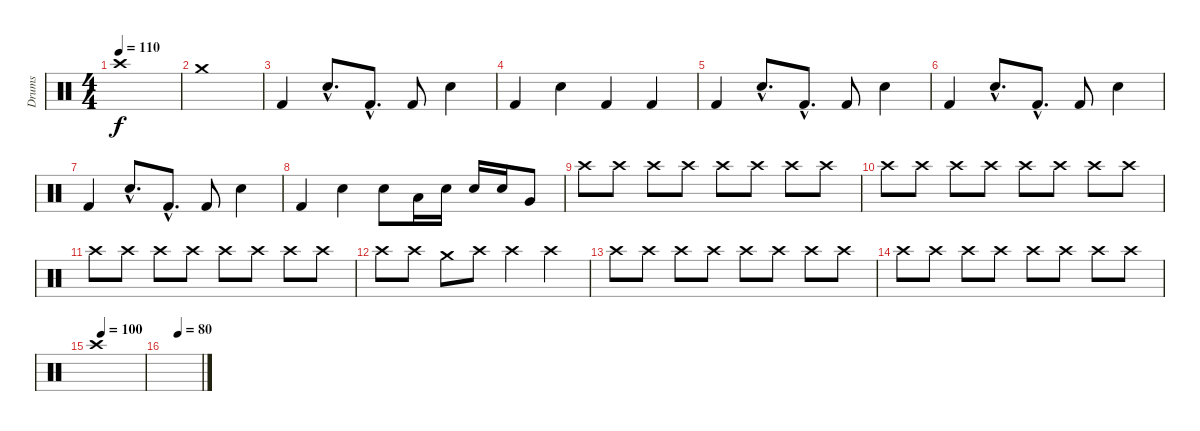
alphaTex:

\track ("Drums" "Drums") {instrument percussion}
\staff {score}
\articulation defaults
\ts (4 4)
\tempo 110
\clef neutral
\ks c "Crash high (hit)".1{dy f}
|
"Crash medium (hit)".1 |
"Kick (hit) 2".4 "Electric Snare (hit)"{hac}.8{d} "Kick (hit) 2"{hac}.8{d} "Kick (hit) 2".8 "Electric Snare (hit)".4 |
"Kick (hit) 2".4 "Electric Snare (hit)".4 "Kick (hit) 2".4 "Kick (hit) 2".4 |
"Kick (hit) 2".4 "Electric Snare (hit)"{hac}.8{d} "Kick (hit) 2"{hac}.8{d} "Kick (hit) 2".8 "Electric Snare (hit)".4 |
"Kick (hit) 2".4 "Electric Snare (hit)"{hac}.8{d} "Kick (hit) 2"{hac}.8{d} "Kick (hit) 2".8 "Electric Snare (hit)".4 |
"Kick (hit) 2".4 "Electric Snare (hit)"{hac}.8{d} "Kick (hit) 2"{hac}.8{d} "Kick (hit) 2".8 "Electric Snare (hit)".4 |
"Kick (hit) 2".4 "Electric Snare (hit)".4 "Electric Snare (hit)".8 "Low Tom (hit)".16 "Electric Snare (hit)".16 "Electric Snare (hit)".16 "Electric Snare (hit)".16 "Very Low Tom (hit)".8 |
"Crash high (hit)".8 "Crash high (hit)".8 "Crash high (hit)".8 "Crash high (hit)".8 "Crash high (hit)".8 "Crash high (hit)".8 "Crash high (hit)".8 "Crash high (hit)".8 |
"Crash high (hit)".8 "Crash high (hit)".8 "Crash high (hit)".8 "Crash high (hit)".8 "Crash high (hit)".8 "Crash high (hit)".8 "Crash high (hit)".8 "Crash high (hit)".8 |
"Crash high (hit)".8 "Crash high (hit)".8 "Crash high (hit)".8 "Crash high (hit)".8 "Crash high (hit)".8 "Crash high (hit)".8 "Crash high (hit)".8 "Crash high (hit)".8 |
"Crash high (hit)".8 "Crash high (hit)".8 "Crash medium (hit)".8 "Crash high (hit)".8 "Crash high (hit)".4 "Crash high (hit)".4 |
"Crash high (hit)".8 "Crash high (hit)".8 "Crash high (hit)".8 "Crash high (hit)".8 "Crash high (hit)".8 "Crash high (hit)".8 "Crash high (hit)".8 "Crash high (hit)".8 |
"Crash high (hit)".8 "Crash high (hit)".8 "Crash high (hit)".8 "Crash high (hit)".8 "Crash high (hit)".8 "Crash high (hit)".8 "Crash high (hit)".8 "Crash high (hit)".8 |
\tempo (100 0.125)
"Crash high (hit)".1 |
\tempo (80 0.375)
